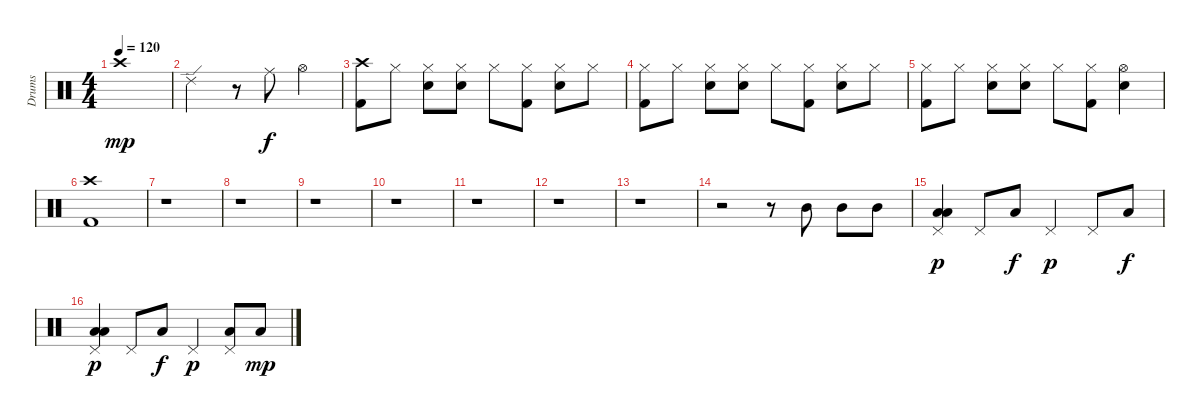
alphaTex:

\track ("Drums" "Drums") {instrument percussion}
\staff {score}
\articulation defaults
\ts (4 4)
\tempo 120
\clef neutral
\ks c "Crash high (hit)".1{dy mp}
|
"Ride (edge) 2".2 r.8 "Ride (middle)".8{dy f} "Hi-Hat (open)".4 |
("Crash high (hit)" "Kick (hit) 2").8 "Hi-Hat (closed)".8 ("Hi-Hat (closed)" "Snare (hit) 2").8 ("Hi-Hat (closed)" "Snare (hit) 2").8 "Hi-Hat (closed)".8 ("Hi-Hat (closed)" "Kick (hit) 2").8 ("Hi-Hat (closed)" "Snare (hit) 2").8 "Hi-Hat (closed)".8 |
("Hi-Hat (closed)" "Kick (hit) 2").8 "Hi-Hat (closed)".8 ("Hi-Hat (closed)" "Snare (hit) 2").8 ("Hi-Hat (closed)" "Snare (hit) 2").8 "Hi-Hat (closed)".8 ("Hi-Hat (closed)" "Kick (hit) 2").8 ("Hi-Hat (closed)" "Snare (hit) 2").8 "Hi-Hat (closed)".8 |
("Hi-Hat (closed)" "Kick (hit) 2").8 "Hi-Hat (closed)".8 ("Hi-Hat (closed)" "Snare (hit) 2").8 ("Hi-Hat (closed)" "Snare (hit) 2").8 "Hi-Hat (closed)".8 ("Hi-Hat (closed)" "Kick (hit) 2").8 ("Hi-Hat (open)" "Snare (hit) 2").4 |
("Crash high (hit)" "Kick (hit) 2").1 |
r.1 |
r.1 |
r.1 |
r.1 |
r.1 |
r.1 |
r.1 |
r.2 r.8 "Mid Tom (hit)".8 "Mid Tom (hit)".8 "Mid Tom (hit)".8 |
("Pedal Hi-Hat (hit)" "Low Tom (hit)" "Low Floor Tom (hit)").4{dy p} "Pedal Hi-Hat (hit)".8 "Low Floor Tom (hit)".8{dy f} "Pedal Hi-Hat (hit)".4{dy p} "Pedal Hi-Hat (hit)".8 "Low Floor Tom (hit)".8{dy f} |
("Pedal Hi-Hat (hit)" "Low Tom (hit)" "Low Floor Tom (hit)").4{dy p} "Pedal Hi-Hat (hit)".8 "Low Floor Tom (hit)".8{dy f} "Pedal Hi-Hat (hit)".4{dy p} ("Pedal Hi-Hat (hit)" "Low Floor Tom (hit)").8 "Low Floor Tom (hit)".8{dy mp}
